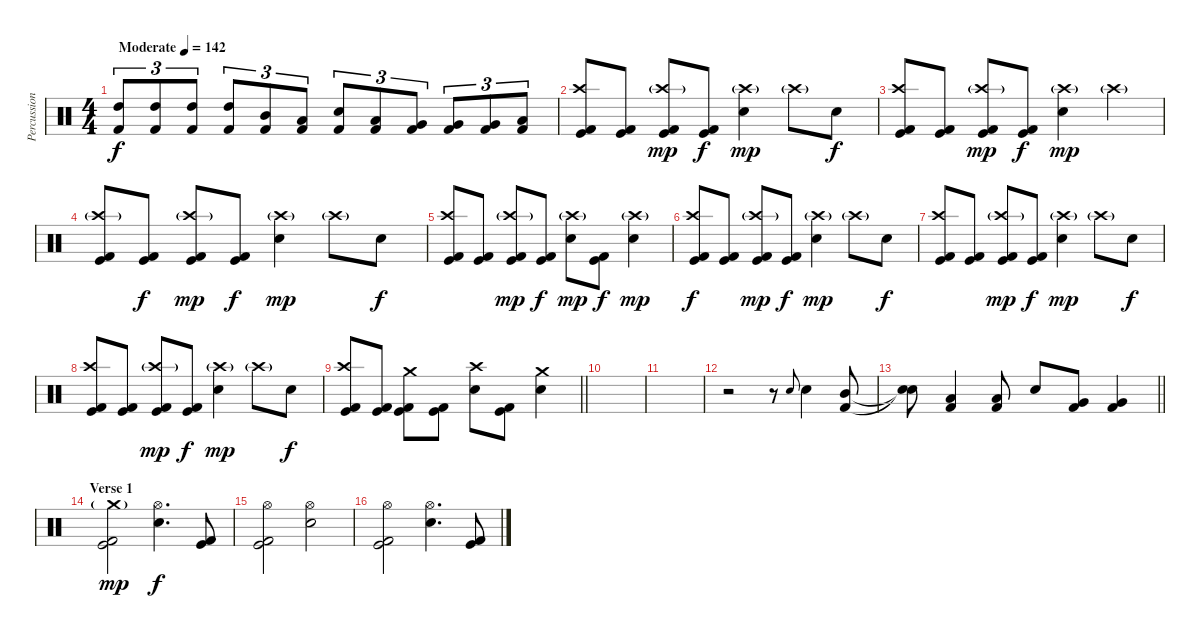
\track ("Percussion" "Percussion") {instrument percussion}
\staff {score}
\articulation defaults
\ts (4 4)
\tempo (142 "Moderate")
\clef neutral
\ks c
("Kick (hit) 2" "High Tom (hit)").8{tu (3 2) dy f} ("Kick (hit) 2" "High Tom (hit)").8{tu (3 2)} ("Kick (hit) 2" "High Tom (hit)").8{tu (3 2)} ("Kick (hit) 2" "High Tom (hit)").8{tu (3 2)} ("Kick (hit) 2" "Mid Tom (hit)").8{tu (3 2)} ("Kick (hit) 2" "Low Tom (hit)").8{tu (3 2)} ("Electric Snare (hit)" "Kick (hit) 2").8{tu (3 2)} ("Kick (hit) 2" "Low Tom (hit)").8{tu (3 2)} ("Kick (hit) 2" "Very Low Tom (hit)").8{tu (3 2)} ("Kick (hit) 2" "Very Low Tom (hit)").8{tu (3 2)} ("Kick (hit) 2" "Very Low Tom (hit)").8{tu (3 2)} ("Kick (hit) 2" "Low Floor Tom (hit)").8{tu (3 2)} |
("Crash high (hit)" "Kick (hit)" "Kick (hit) 2").8 ("Kick (hit)" "Kick (hit) 2").8 ("Crash high (hit)"{g} "Kick (hit)" "Kick (hit) 2").8{dy mp} ("Kick (hit)" "Kick (hit) 2").8{dy f} ("Crash high (hit)"{g} "Electric Snare (hit)").4{dy mp} "Crash high (hit)"{g}.8 "Electric Snare (hit)".8{dy f} |
("Crash high (hit)" "Kick (hit)" "Kick (hit) 2").8 ("Kick (hit)" "Kick (hit) 2").8 ("Crash high (hit)"{g} "Kick (hit)" "Kick (hit) 2").8{dy mp} ("Kick (hit)" "Kick (hit) 2").8{dy f} ("Crash high (hit)"{g} "Electric Snare (hit)").4{dy mp} "Crash high (hit)"{g}.4 |
("Crash high (hit)"{g} "Kick (hit)" "Kick (hit) 2").8 ("Kick (hit)" "Kick (hit) 2").8{dy f} ("Crash high (hit)"{g} "Kick (hit)" "Kick (hit) 2").8{dy mp} ("Kick (hit)" "Kick (hit) 2").8{dy f} ("Crash high (hit)"{g} "Electric Snare (hit)").4{dy mp} "Crash high (hit)"{g}.8 "Electric Snare (hit)".8{dy f} |
("Crash high (hit)" "Kick (hit)" "Kick (hit) 2").8 ("Kick (hit)" "Kick (hit) 2").8 ("Crash high (hit)"{g} "Kick (hit)" "Kick (hit) 2").8{dy mp} ("Kick (hit)" "Kick (hit) 2").8{dy f} ("Crash high (hit)"{g} "Electric Snare (hit)").8{dy mp} ("Kick (hit)" "Kick (hit) 2").8{dy f} ("Crash high (hit)"{g} "Electric Snare (hit)").4{dy mp} |
("Crash high (hit)" "Kick (hit)" "Kick (hit) 2").8{dy f} ("Kick (hit)" "Kick (hit) 2").8 ("Crash high (hit)"{g} "Kick (hit)" "Kick (hit) 2").8{dy mp} ("Kick (hit)" "Kick (hit) 2").8{dy f} ("Crash high (hit)"{g} "Electric Snare (hit)").4{dy mp} "Crash high (hit)"{g}.8 "Electric Snare (hit)".8{dy f} |
("Crash high (hit)" "Kick (hit)" "Kick (hit) 2").8 ("Kick (hit)" "Kick (hit) 2").8 ("Crash high (hit)"{g} "Kick (hit)" "Kick (hit) 2").8{dy mp} ("Kick (hit)" "Kick (hit) 2").8{dy f} ("Crash high (hit)"{g} "Electric Snare (hit)").4{dy mp} "Crash high (hit)"{g}.8 "Electric Snare (hit)".8{dy f} |
("Crash high (hit)" "Kick (hit)" "Kick (hit) 2").8 ("Kick (hit)" "Kick (hit) 2").8 ("Crash high (hit)"{g} "Kick (hit)" "Kick (hit) 2").8{dy mp} ("Kick (hit)" "Kick (hit) 2").8{dy f} ("Crash high (hit)"{g} "Electric Snare (hit)").4{dy mp} "Crash high (hit)"{g}.8 "Electric Snare (hit)".8{dy f} |
\barLineRight lightlight
("Crash high (hit)" "Kick (hit)" "Kick (hit) 2").8 ("Kick (hit)" "Kick (hit) 2").8 ("Crash medium (hit)" "Kick (hit)" "Kick (hit) 2").8 ("Kick (hit)" "Kick (hit) 2").8 ("Crash high (hit)" "Electric Snare (hit)").8 ("Kick (hit)" "Kick (hit) 2").8 ("Crash medium (hit)" "Electric Snare (hit)").4 |
\section ("" "")
|
|
r.2 r.8 "Electric Snare (hit)".8{gr onbeat} "Electric Snare (hit)".4 ("Kick (hit) 2" "Mid Tom (hit)").8 |
\barLineRight lightlight
("Snare (hit)"{t} "Snare (hit)"{t}).8 ("Kick (hit) 2" "Low Tom (hit)").4 ("Kick (hit) 2" "Low Tom (hit)").8 "Electric Snare (hit)".8 ("Kick (hit) 2" "Very Low Tom (hit)").8 ("Kick (hit) 2" "Very Low Tom (hit)").4 |
\section ("" "Verse 1")
("Crash medium (hit)"{g} "Kick (hit)" "Kick (hit) 2").2{dy mp} ("Hi-Hat (open)" "Electric Snare (hit)").4{d dy f} ("Kick (hit)" "Kick (hit) 2").8 |
("Hi-Hat (open)" "Kick (hit)" "Kick (hit) 2").2 ("Hi-Hat (open)" "Electric Snare (hit)").2 |
("Hi-Hat (open)" "Kick (hit)" "Kick (hit) 2").2 ("Hi-Hat (open)" "Electric Snare (hit)").4{d} ("Kick (hit)" "Kick (hit) 2").8
